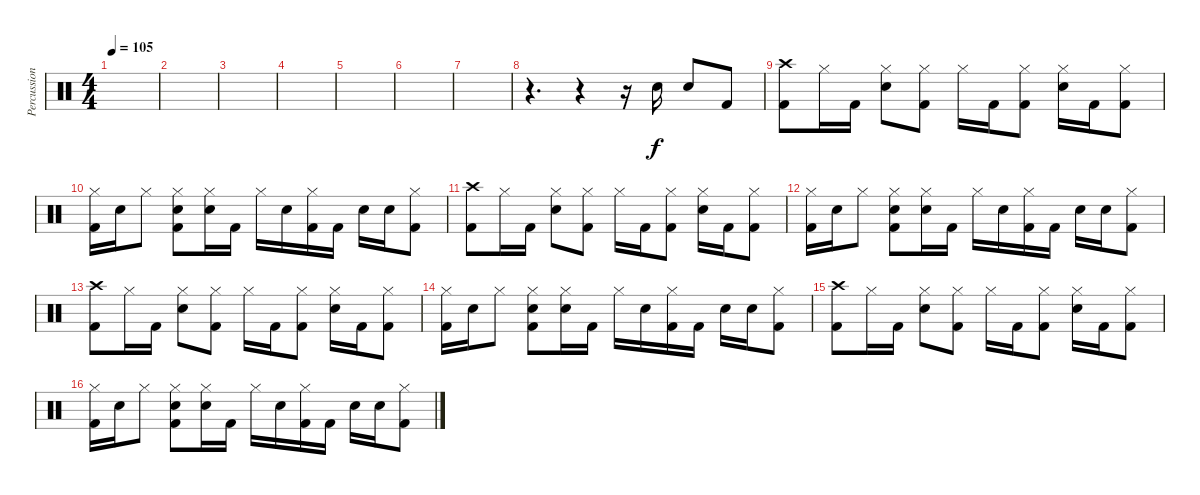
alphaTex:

\track ("Percussion" "Percussion") {instrument percussion}
\staff {score}
\articulation defaults
\ts (4 4)
\tempo 105
\clef neutral
\ks c
|
|
|
|
|
|
|
r.4{d} r.4 r.16 "Electric Snare (hit)".16 "Electric Snare (hit)".8 "Kick (hit) 2".8 |
("Crash high (hit)" "Kick (hit) 2").8 "Hi-Hat (closed)".16 "Kick (hit) 2".16 ("Hi-Hat (closed)" "Electric Snare (hit)").8 ("Hi-Hat (closed)" "Kick (hit) 2").8 "Hi-Hat (closed)".16 "Kick (hit) 2".16 ("Hi-Hat (closed)" "Kick (hit) 2").8 ("Hi-Hat (closed)" "Electric Snare (hit)").16 "Kick (hit) 2".16 ("Hi-Hat (closed)" "Kick (hit) 2").8 |
("Hi-Hat (closed)" "Kick (hit) 2").16 "Electric Snare (hit)".16 "Hi-Hat (closed)".8 ("Hi-Hat (closed)" "Electric Snare (hit)" "Kick (hit) 2").8 ("Hi-Hat (closed)" "Electric Snare (hit)").16 "Kick (hit) 2".16 "Hi-Hat (closed)".16 "Electric Snare (hit)".16 ("Hi-Hat (closed)" "Kick (hit) 2").16 "Kick (hit) 2".16 "Electric Snare (hit)".16 "Electric Snare (hit)".16 ("Hi-Hat (closed)" "Kick (hit) 2").8 |
("Crash high (hit)" "Kick (hit) 2").8 "Hi-Hat (closed)".16 "Kick (hit) 2".16 ("Hi-Hat (closed)" "Electric Snare (hit)").8 ("Hi-Hat (closed)" "Kick (hit) 2").8 "Hi-Hat (closed)".16 "Kick (hit) 2".16 ("Hi-Hat (closed)" "Kick (hit) 2").8 ("Hi-Hat (closed)" "Electric Snare (hit)").16 "Kick (hit) 2".16 ("Hi-Hat (closed)" "Kick (hit) 2").8 |
("Hi-Hat (closed)" "Kick (hit) 2").16 "Electric Snare (hit)".16 "Hi-Hat (closed)".8 ("Hi-Hat (closed)" "Electric Snare (hit)" "Kick (hit) 2").8 ("Hi-Hat (closed)" "Electric Snare (hit)").16 "Kick (hit) 2".16 "Hi-Hat (closed)".16 "Electric Snare (hit)".16 ("Hi-Hat (closed)" "Kick (hit) 2").16 "Kick (hit) 2".16 "Electric Snare (hit)".16 "Electric Snare (hit)".16 ("Hi-Hat (closed)" "Kick (hit) 2").8 |
("Crash high (hit)" "Kick (hit) 2").8 "Hi-Hat (closed)".16 "Kick (hit) 2".16 ("Hi-Hat (closed)" "Electric Snare (hit)").8 ("Hi-Hat (closed)" "Kick (hit) 2").8 "Hi-Hat (closed)".16 "Kick (hit) 2".16 ("Hi-Hat (closed)" "Kick (hit) 2").8 ("Hi-Hat (closed)" "Electric Snare (hit)").16 "Kick (hit) 2".16 ("Hi-Hat (closed)" "Kick (hit) 2").8 |
("Hi-Hat (closed)" "Kick (hit) 2").16 "Electric Snare (hit)".16 "Hi-Hat (closed)".8 ("Hi-Hat (closed)" "Electric Snare (hit)" "Kick (hit) 2").8 ("Hi-Hat (closed)" "Electric Snare (hit)").16 "Kick (hit) 2".16 "Hi-Hat (closed)".16 "Electric Snare (hit)".16 ("Hi-Hat (closed)" "Kick (hit) 2").16 "Kick (hit) 2".16 "Electric Snare (hit)".16 "Electric Snare (hit)".16 ("Hi-Hat (closed)" "Kick (hit) 2").8 |
("Crash high (hit)" "Kick (hit) 2").8 "Hi-Hat (closed)".16 "Kick (hit) 2".16 ("Hi-Hat (closed)" "Electric Snare (hit)").8 ("Hi-Hat (closed)" "Kick (hit) 2").8 "Hi-Hat (closed)".16 "Kick (hit) 2".16 ("Hi-Hat (closed)" "Kick (hit) 2").8 ("Hi-Hat (closed)" "Electric Snare (hit)").16 "Kick (hit) 2".16 ("Hi-Hat (closed)" "Kick (hit) 2").8 |
("Hi-Hat (closed)" "Kick (hit) 2").16 "Electric Snare (hit)".16 "Hi-Hat (closed)".8 ("Hi-Hat (closed)" "Electric Snare (hit)" "Kick (hit) 2").8 ("Hi-Hat (closed)" "Electric Snare (hit)").16 "Kick (hit) 2".16 "Hi-Hat (closed)".16 "Electric Snare (hit)".16 ("Hi-Hat (closed)" "Kick (hit) 2").16 "Kick (hit) 2".16 "Electric Snare (hit)".16 "Electric Snare (hit)".16 ("Hi-Hat (closed)" "Kick (hit) 2").8
